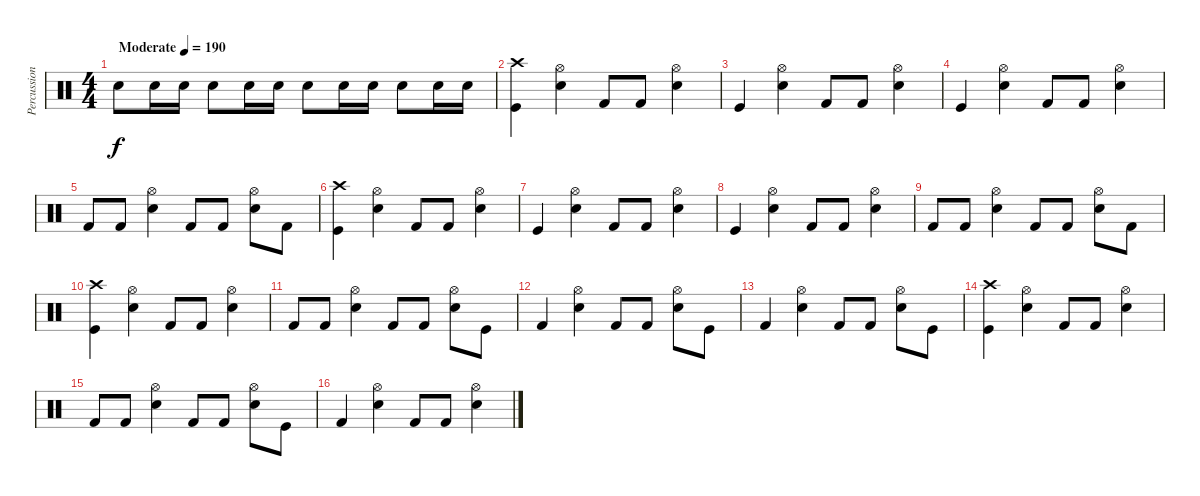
\track ("Percussions" "Percussion") {instrument percussion}
\staff {score}
\articulation defaults
\ts (4 4)
\tempo (190 "Moderate")
\clef neutral
\ks c "Snare (hit) 2".8{dy f} "Snare (hit) 2".16 "Snare (hit) 2".16 "Snare (hit) 2".8 "Snare (hit) 2".16 "Snare (hit) 2".16 "Snare (hit) 2".8 "Snare (hit) 2".16 "Snare (hit) 2".16 "Snare (hit) 2".8 "Snare (hit) 2".16 "Snare (hit) 2".16
|
("Crash high (hit)" "Kick (hit)").4 ("Hi-Hat (open)" "Snare (hit) 2").4 "Kick (hit) 2".8 "Kick (hit) 2".8 ("Hi-Hat (open)" "Snare (hit) 2").4 |
"Kick (hit)".4 ("Hi-Hat (open)" "Snare (hit) 2").4 "Kick (hit) 2".8 "Kick (hit) 2".8 ("Hi-Hat (open)" "Snare (hit) 2").4 |
"Kick (hit)".4 ("Hi-Hat (open)" "Snare (hit) 2").4 "Kick (hit) 2".8 "Kick (hit) 2".8 ("Hi-Hat (open)" "Snare (hit) 2").4 |
"Kick (hit) 2".8 "Kick (hit) 2".8 ("Hi-Hat (open)" "Snare (hit) 2").4 "Kick (hit) 2".8 "Kick (hit) 2".8 ("Hi-Hat (open)" "Snare (hit) 2").8 "Kick (hit) 2".8 |
("Crash high (hit)" "Kick (hit)").4 ("Hi-Hat (open)" "Snare (hit) 2").4 "Kick (hit) 2".8 "Kick (hit) 2".8 ("Hi-Hat (open)" "Snare (hit) 2").4 |
"Kick (hit)".4 ("Hi-Hat (open)" "Snare (hit) 2").4 "Kick (hit) 2".8 "Kick (hit) 2".8 ("Hi-Hat (open)" "Snare (hit) 2").4 |
"Kick (hit)".4 ("Hi-Hat (open)" "Snare (hit) 2").4 "Kick (hit) 2".8 "Kick (hit) 2".8 ("Hi-Hat (open)" "Snare (hit) 2").4 |
"Kick (hit) 2".8 "Kick (hit) 2".8 ("Hi-Hat (open)" "Snare (hit) 2").4 "Kick (hit) 2".8 "Kick (hit) 2".8 ("Hi-Hat (open)" "Snare (hit) 2").8 "Kick (hit) 2".8 |
("Crash high (hit)" "Kick (hit)").4 ("Hi-Hat (open)" "Snare (hit) 2").4 "Kick (hit) 2".8 "Kick (hit) 2".8 ("Hi-Hat (open)" "Snare (hit) 2").4 |
"Kick (hit) 2".8 "Kick (hit) 2".8 ("Hi-Hat (open)" "Snare (hit) 2").4 "Kick (hit) 2".8 "Kick (hit) 2".8 ("Hi-Hat (open)" "Snare (hit) 2").8 "Kick (hit)".8 |
"Kick (hit) 2".4 ("Hi-Hat (open)" "Snare (hit) 2").4 "Kick (hit) 2".8 "Kick (hit) 2".8 ("Hi-Hat (open)" "Snare (hit) 2").8 "Kick (hit)".8 |
"Kick (hit) 2".4 ("Hi-Hat (open)" "Snare (hit) 2").4 "Kick (hit) 2".8 "Kick (hit) 2".8 ("Hi-Hat (open)" "Snare (hit) 2").8 "Kick (hit)".8 |
("Crash high (hit)" "Kick (hit)").4 ("Hi-Hat (open)" "Snare (hit) 2").4 "Kick (hit) 2".8 "Kick (hit) 2".8 ("Hi-Hat (open)" "Snare (hit) 2").4 |
"Kick (hit) 2".8 "Kick (hit) 2".8 ("Hi-Hat (open)" "Snare (hit) 2").4 "Kick (hit) 2".8 "Kick (hit) 2".8 ("Hi-Hat (open)" "Snare (hit) 2").8 "Kick (hit)".8 |
"Kick (hit) 2".4 ("Hi-Hat (open)" "Snare (hit) 2").4 "Kick (hit) 2".8 "Kick (hit) 2".8 ("Hi-Hat (open)" "Snare (hit) 2").4
